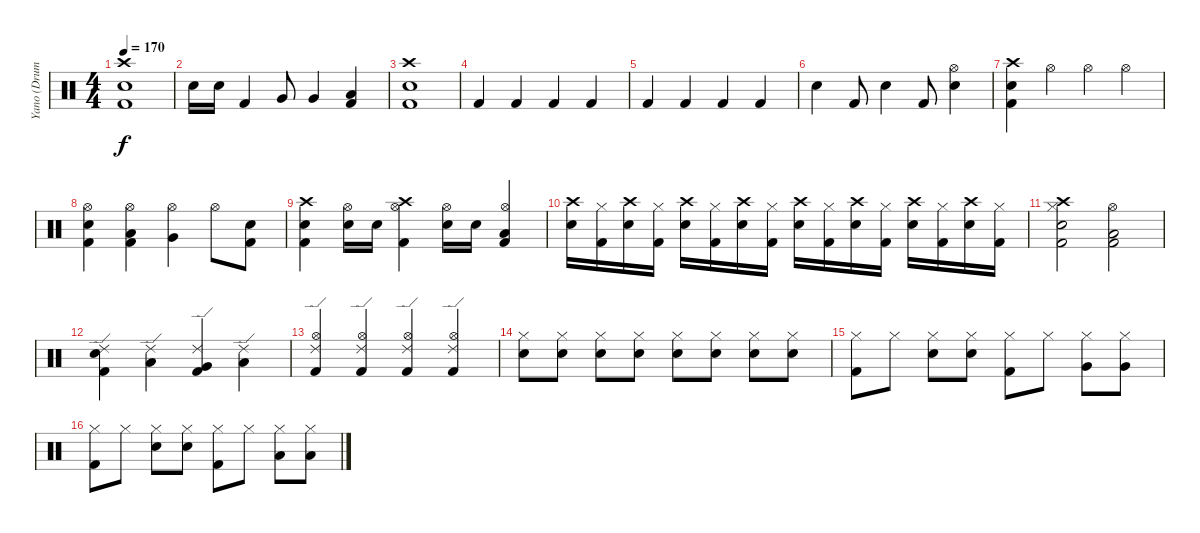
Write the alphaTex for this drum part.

\track ("Yano (Drums)" "Yano (Drum") {instrument percussion}
\staff {score}
\articulation defaults
\ts (4 4)
\tempo 170
\clef neutral
\ks c
("Crash high (hit)" "Electric Snare (hit)" "Kick (hit) 2").1{dy f} |
"Electric Snare (hit)".16 "Electric Snare (hit)".16 "Kick (hit) 2".4 "Very Low Tom (hit)".8 "Very Low Tom (hit)".4 ("Low Floor Tom (hit)" "Kick (hit) 2").4 |
("Crash high (hit)" "Electric Snare (hit)" "Kick (hit) 2").1 |
"Kick (hit) 2".4 "Kick (hit) 2".4 "Kick (hit) 2".4 "Kick (hit) 2".4 |
"Kick (hit) 2".4 "Kick (hit) 2".4 "Kick (hit) 2".4 "Kick (hit) 2".4 |
"Electric Snare (hit)".4 "Kick (hit) 2".8 "Electric Snare (hit)".4 "Kick (hit) 2".8 ("Electric Snare (hit)" "Hi-Hat (open)").4 |
("Crash high (hit)" "Electric Snare (hit)" "Kick (hit) 2").4 "Hi-Hat (open)".4 "Hi-Hat (open)".4 "Hi-Hat (open)".4 |
("Hi-Hat (open)" "Electric Snare (hit)" "Kick (hit) 2").4 ("Hi-Hat (open)" "Low Floor Tom (hit)" "Kick (hit) 2").4 ("Hi-Hat (open)" "Very Low Tom (hit)").4 "Hi-Hat (open)".8 ("Electric Snare (hit)" "Kick (hit) 2").8 |
("Crash high (hit)" "Electric Snare (hit)" "Kick (hit) 2").4 ("Hi-Hat (open)" "Electric Snare (hit)").16 "Electric Snare (hit)".16 ("Hi-Hat (open)" "Crash high (hit)" "Kick (hit) 2").4 ("Hi-Hat (open)" "Electric Snare (hit)").16 "Electric Snare (hit)".16 ("Hi-Hat (open)" "Low Tom (hit)" "Kick (hit) 2").4 |
("Crash high (hit)" "Electric Snare (hit)").16 ("Hi-Hat (closed)" "Kick (hit) 2").16 ("Crash high (hit)" "Electric Snare (hit)").16 ("Hi-Hat (closed)" "Kick (hit) 2").16 ("Crash high (hit)" "Electric Snare (hit)").16 ("Hi-Hat (closed)" "Kick (hit) 2").16 ("Crash high (hit)" "Electric Snare (hit)").16 ("Hi-Hat (closed)" "Kick (hit) 2").16 ("Crash high (hit)" "Electric Snare (hit)").16 ("Hi-Hat (closed)" "Kick (hit) 2").16 ("Crash high (hit)" "Electric Snare (hit)").16 ("Hi-Hat (closed)" "Kick (hit) 2").16 ("Crash high (hit)" "Electric Snare (hit)").16 ("Hi-Hat (closed)" "Kick (hit) 2").16 ("Crash high (hit)" "Electric Snare (hit)").16 ("Hi-Hat (closed)" "Kick (hit) 2").16 |
("Crash high (hit)" "Electric Snare (hit)" "Hi-Hat (closed)" "Kick (hit) 2").2 ("Low Floor Tom (hit)" "Hi-Hat (open)" "Kick (hit) 2").2 |
("Ride (edge) 2" "Electric Snare (hit)" "Kick (hit) 2").4 ("Ride (edge) 2" "Low Floor Tom (hit)").4 ("Ride (edge) 2" "Very Low Tom (hit)" "Kick (hit) 2").4 ("Ride (edge) 2" "Low Tom (hit)").4 |
("Ride (edge) 2" "Hi-Hat (open)" "Kick (hit) 2").4 ("Ride (edge) 2" "Hi-Hat (open)" "Kick (hit) 2").4 ("Ride (edge) 2" "Hi-Hat (open)" "Kick (hit) 2").4 ("Ride (edge) 2" "Hi-Hat (open)" "Kick (hit) 2").4 |
("Hi-Hat (closed)" "Electric Snare (hit)").8 ("Hi-Hat (closed)" "Electric Snare (hit)").8 ("Hi-Hat (closed)" "Electric Snare (hit)").8 ("Hi-Hat (closed)" "Electric Snare (hit)").8 ("Hi-Hat (closed)" "Electric Snare (hit)").8 ("Hi-Hat (closed)" "Electric Snare (hit)").8 ("Hi-Hat (closed)" "Electric Snare (hit)").8 ("Hi-Hat (closed)" "Electric Snare (hit)").8 |
("Hi-Hat (closed)" "Kick (hit) 2").8 "Hi-Hat (closed)".8 ("Hi-Hat (closed)" "Electric Snare (hit)").8 ("Hi-Hat (closed)" "Electric Snare (hit)").8 ("Hi-Hat (closed)" "Kick (hit) 2").8 "Hi-Hat (closed)".8 ("Hi-Hat (closed)" "Very Low Tom (hit)").8 ("Hi-Hat (closed)" "Very Low Tom (hit)").8 |
("Hi-Hat (closed)" "Kick (hit) 2").8 "Hi-Hat (closed)".8 ("Hi-Hat (closed)" "Electric Snare (hit)").8 ("Hi-Hat (closed)" "Electric Snare (hit)").8 ("Hi-Hat (closed)" "Kick (hit) 2").8 "Hi-Hat (closed)".8 ("Hi-Hat (closed)" "Low Tom (hit)").8 ("Hi-Hat (closed)" "Low Tom (hit)").8
